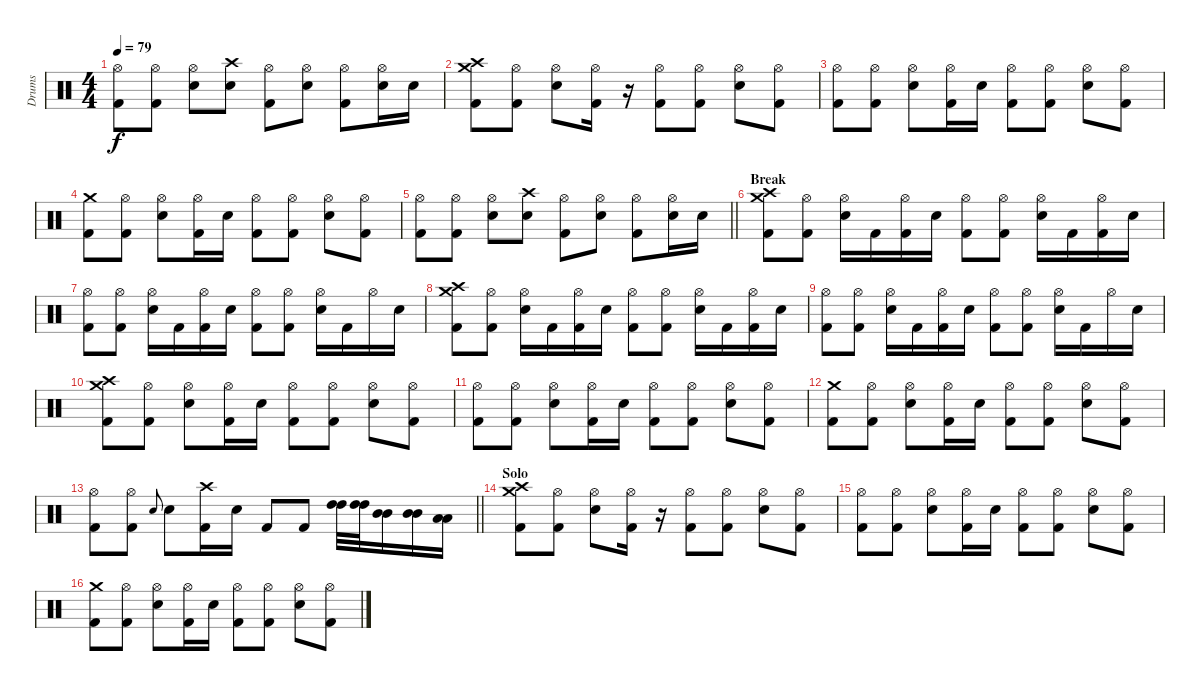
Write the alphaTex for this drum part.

\track ("Drums" "Drums") {instrument percussion}
\staff {score}
\articulation defaults
\ts (4 4)
\tempo 79
\clef neutral
\ks c
("Hi-Hat (open)" "Kick (hit) 2").8{dy f} ("Hi-Hat (open)" "Kick (hit) 2").8 ("Hi-Hat (open)" "Electric Snare (hit)").8 ("Crash high (hit)" "Electric Snare (hit)").8 ("Hi-Hat (open)" "Kick (hit) 2").8 ("Hi-Hat (open)" "Electric Snare (hit)").8 ("Hi-Hat (open)" "Kick (hit) 2").8 ("Hi-Hat (open)" "Electric Snare (hit)").16 "Electric Snare (hit)".16 |
("Crash high (hit)" "Crash medium (hit)" "Kick (hit) 2").8 ("Hi-Hat (open)" "Kick (hit) 2").8 ("Hi-Hat (open)" "Electric Snare (hit)").8 ("Hi-Hat (open)" "Kick (hit) 2").16 r.16 ("Hi-Hat (open)" "Kick (hit) 2").8 ("Hi-Hat (open)" "Kick (hit) 2").8 ("Hi-Hat (open)" "Electric Snare (hit)").8 ("Hi-Hat (open)" "Kick (hit) 2").8 |
("Hi-Hat (open)" "Kick (hit) 2").8 ("Hi-Hat (open)" "Kick (hit) 2").8 ("Hi-Hat (open)" "Electric Snare (hit)").8 ("Hi-Hat (open)" "Kick (hit) 2").16 "Electric Snare (hit)".16 ("Hi-Hat (open)" "Kick (hit) 2").8 ("Hi-Hat (open)" "Kick (hit) 2").8 ("Hi-Hat (open)" "Electric Snare (hit)").8 ("Hi-Hat (open)" "Kick (hit) 2").8 |
("Crash medium (hit)" "Kick (hit) 2").8 ("Hi-Hat (open)" "Kick (hit) 2").8 ("Hi-Hat (open)" "Electric Snare (hit)").8 ("Hi-Hat (open)" "Kick (hit) 2").16 "Electric Snare (hit)".16 ("Hi-Hat (open)" "Kick (hit) 2").8 ("Hi-Hat (open)" "Kick (hit) 2").8 ("Hi-Hat (open)" "Electric Snare (hit)").8 ("Hi-Hat (open)" "Kick (hit) 2").8 |
\barLineRight lightlight
("Hi-Hat (open)" "Kick (hit) 2").8 ("Hi-Hat (open)" "Kick (hit) 2").8 ("Hi-Hat (open)" "Electric Snare (hit)").8 ("Crash high (hit)" "Electric Snare (hit)").8 ("Hi-Hat (open)" "Kick (hit) 2").8 ("Hi-Hat (open)" "Electric Snare (hit)").8 ("Hi-Hat (open)" "Kick (hit) 2").8 ("Hi-Hat (open)" "Electric Snare (hit)").16 "Electric Snare (hit)".16 |
\section ("" "Break")
("Crash high (hit)" "Crash medium (hit)" "Kick (hit) 2").8 ("Hi-Hat (open)" "Kick (hit) 2").8 ("Hi-Hat (open)" "Electric Snare (hit)").16 "Kick (hit) 2".16 ("Hi-Hat (open)" "Kick (hit) 2").16 "Electric Snare (hit)".16 ("Hi-Hat (open)" "Kick (hit) 2").8 ("Hi-Hat (open)" "Kick (hit) 2").8 ("Hi-Hat (open)" "Electric Snare (hit)").16 "Kick (hit) 2".16 ("Hi-Hat (open)" "Kick (hit) 2").16 "Electric Snare (hit)".16 |
("Hi-Hat (open)" "Kick (hit) 2").8 ("Hi-Hat (open)" "Kick (hit) 2").8 ("Hi-Hat (open)" "Electric Snare (hit)").16 "Kick (hit) 2".16 ("Hi-Hat (open)" "Kick (hit) 2").16 "Electric Snare (hit)".16 ("Hi-Hat (open)" "Kick (hit) 2").8 ("Hi-Hat (open)" "Kick (hit) 2").8 ("Hi-Hat (open)" "Electric Snare (hit)").16 "Kick (hit) 2".16 "Hi-Hat (open)".16 "Electric Snare (hit)".16 |
("Crash high (hit)" "Crash medium (hit)" "Kick (hit) 2").8 ("Hi-Hat (open)" "Kick (hit) 2").8 ("Hi-Hat (open)" "Electric Snare (hit)").16 "Kick (hit) 2".16 ("Hi-Hat (open)" "Kick (hit) 2").16 "Electric Snare (hit)".16 ("Hi-Hat (open)" "Kick (hit) 2").8 ("Hi-Hat (open)" "Kick (hit) 2").8 ("Hi-Hat (open)" "Electric Snare (hit)").16 "Kick (hit) 2".16 ("Hi-Hat (open)" "Kick (hit) 2").16 "Electric Snare (hit)".16 |
("Hi-Hat (open)" "Kick (hit) 2").8 ("Hi-Hat (open)" "Kick (hit) 2").8 ("Hi-Hat (open)" "Electric Snare (hit)").16 "Kick (hit) 2".16 ("Hi-Hat (open)" "Kick (hit) 2").16 "Electric Snare (hit)".16 ("Hi-Hat (open)" "Kick (hit) 2").8 ("Hi-Hat (open)" "Kick (hit) 2").8 ("Hi-Hat (open)" "Electric Snare (hit)").16 "Kick (hit) 2".16 "Hi-Hat (open)".16 "Electric Snare (hit)".16 |
("Crash high (hit)" "Crash medium (hit)" "Kick (hit) 2").8 ("Hi-Hat (open)" "Kick (hit) 2").8 ("Hi-Hat (open)" "Electric Snare (hit)").8 ("Hi-Hat (open)" "Kick (hit) 2").16 "Electric Snare (hit)".16 ("Hi-Hat (open)" "Kick (hit) 2").8 ("Hi-Hat (open)" "Kick (hit) 2").8 ("Hi-Hat (open)" "Electric Snare (hit)").8 ("Hi-Hat (open)" "Kick (hit) 2").8 |
("Hi-Hat (open)" "Kick (hit) 2").8 ("Hi-Hat (open)" "Kick (hit) 2").8 ("Hi-Hat (open)" "Electric Snare (hit)").8 ("Hi-Hat (open)" "Kick (hit) 2").16 "Electric Snare (hit)".16 ("Hi-Hat (open)" "Kick (hit) 2").8 ("Hi-Hat (open)" "Kick (hit) 2").8 ("Hi-Hat (open)" "Electric Snare (hit)").8 ("Hi-Hat (open)" "Kick (hit) 2").8 |
("Crash medium (hit)" "Kick (hit) 2").8 ("Hi-Hat (open)" "Kick (hit) 2").8 ("Hi-Hat (open)" "Electric Snare (hit)").8 ("Hi-Hat (open)" "Kick (hit) 2").16 "Electric Snare (hit)".16 ("Hi-Hat (open)" "Kick (hit) 2").8 ("Hi-Hat (open)" "Kick (hit) 2").8 ("Hi-Hat (open)" "Electric Snare (hit)").8 ("Hi-Hat (open)" "Kick (hit) 2").8 |
\barLineRight lightlight
("Hi-Hat (open)" "Kick (hit) 2").8 ("Hi-Hat (open)" "Kick (hit) 2").8 "Electric Snare (hit)".8{gr onbeat} "Electric Snare (hit)".8 ("Crash high (hit)" "Kick (hit) 2").16 "Electric Snare (hit)".16 "Kick (hit) 2".8 "Kick (hit) 2".8 ("High Tom (hit)" "High Tom (hit)").32 ("High Tom (hit)" "High Tom (hit)").32 ("Mid Tom (hit)" "Mid Tom (hit)").16 ("Mid Tom (hit)" "Mid Tom (hit)").16 ("Low Tom (hit)" "Low Tom (hit)").16 |
\section ("" "Solo")
("Crash high (hit)" "Crash medium (hit)" "Kick (hit) 2").8 ("Hi-Hat (open)" "Kick (hit) 2").8 ("Hi-Hat (open)" "Electric Snare (hit)").8 ("Hi-Hat (open)" "Kick (hit) 2").16 r.16 ("Hi-Hat (open)" "Kick (hit) 2").8 ("Hi-Hat (open)" "Kick (hit) 2").8 ("Hi-Hat (open)" "Electric Snare (hit)").8 ("Hi-Hat (open)" "Kick (hit) 2").8 |
("Hi-Hat (open)" "Kick (hit) 2").8 ("Hi-Hat (open)" "Kick (hit) 2").8 ("Hi-Hat (open)" "Electric Snare (hit)").8 ("Hi-Hat (open)" "Kick (hit) 2").16 "Electric Snare (hit)".16 ("Hi-Hat (open)" "Kick (hit) 2").8 ("Hi-Hat (open)" "Kick (hit) 2").8 ("Hi-Hat (open)" "Electric Snare (hit)").8 ("Hi-Hat (open)" "Kick (hit) 2").8 |
("Crash medium (hit)" "Kick (hit) 2").8 ("Hi-Hat (open)" "Kick (hit) 2").8 ("Hi-Hat (open)" "Electric Snare (hit)").8 ("Hi-Hat (open)" "Kick (hit) 2").16 "Electric Snare (hit)".16 ("Hi-Hat (open)" "Kick (hit) 2").8 ("Hi-Hat (open)" "Kick (hit) 2").8 ("Hi-Hat (open)" "Electric Snare (hit)").8 ("Hi-Hat (open)" "Kick (hit) 2").8
